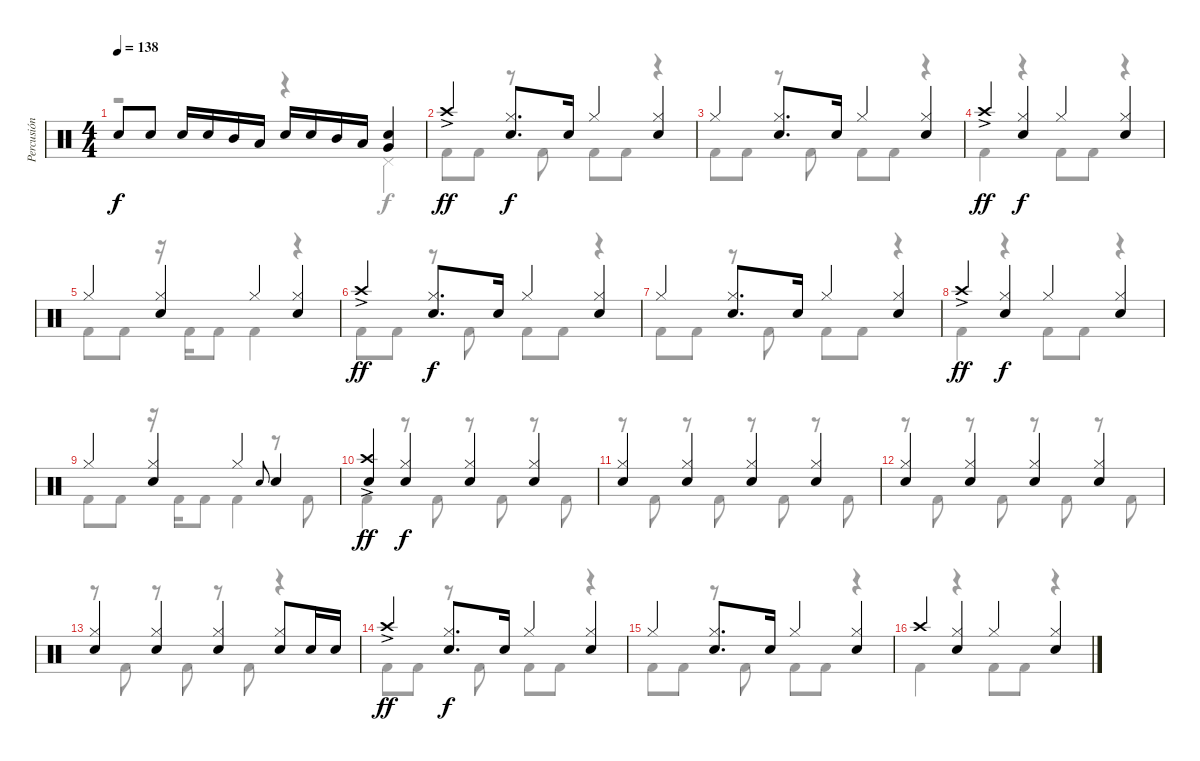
\track ("Percusión" "Percusión") {instrument percussion}
\staff {score}
\articulation defaults
\voice
\ts (4 4)
\tempo 138
\clef neutral
\ks c "Electric Snare (hit)".8{dy f} "Electric Snare (hit)".8 "Electric Snare (hit)".16 "Electric Snare (hit)".16 "Mid Tom (hit)".16 "Low Tom (hit)".16 "Electric Snare (hit)".16 "Electric Snare (hit)".16 "Mid Tom (hit)".16 "Low Tom (hit)".16
("Electric Snare (hit)" "Very Low Tom (hit)").4 |
"Crash high (hit)"{ac}.4{dy ff} ("Electric Snare (hit)" "Hi-Hat (closed)").8{d dy f} "Electric Snare (hit)".16 "Hi-Hat (closed)".4 ("Electric Snare (hit)" "Hi-Hat (closed)").4 |
"Hi-Hat (closed)".4 ("Electric Snare (hit)" "Hi-Hat (closed)").8{d} "Electric Snare (hit)".16 "Hi-Hat (closed)".4 ("Electric Snare (hit)" "Hi-Hat (closed)").4 |
"Crash high (hit)"{ac}.4{dy ff} ("Electric Snare (hit)" "Hi-Hat (closed)").4{dy f} "Hi-Hat (closed)".4 ("Electric Snare (hit)" "Hi-Hat (closed)").4 |
"Hi-Hat (closed)".4 ("Electric Snare (hit)" "Hi-Hat (closed)").4 "Hi-Hat (closed)".4 ("Electric Snare (hit)" "Hi-Hat (closed)").4 |
"Crash high (hit)"{ac}.4{dy ff} ("Electric Snare (hit)" "Hi-Hat (closed)").8{d dy f} "Electric Snare (hit)".16 "Hi-Hat (closed)".4 ("Electric Snare (hit)" "Hi-Hat (closed)").4 |
"Hi-Hat (closed)".4 ("Electric Snare (hit)" "Hi-Hat (closed)").8{d} "Electric Snare (hit)".16 "Hi-Hat (closed)".4 ("Electric Snare (hit)" "Hi-Hat (closed)").4 |
"Crash high (hit)"{ac}.4{dy ff} ("Electric Snare (hit)" "Hi-Hat (closed)").4{dy f} "Hi-Hat (closed)".4 ("Electric Snare (hit)" "Hi-Hat (closed)").4 |
"Hi-Hat (closed)".4 ("Electric Snare (hit)" "Hi-Hat (closed)").4 "Hi-Hat (closed)".4 "Electric Snare (hit)".8{gr onbeat} "Electric Snare (hit)".4 |
("Electric Snare (hit)" "Crash high (hit)"{ac}).4{dy ff} ("Electric Snare (hit)" "Hi-Hat (closed)").4{dy f} ("Electric Snare (hit)" "Hi-Hat (closed)").4 ("Electric Snare (hit)" "Hi-Hat (closed)").4 |
("Electric Snare (hit)" "Hi-Hat (closed)").4 ("Electric Snare (hit)" "Hi-Hat (closed)").4 ("Electric Snare (hit)" "Hi-Hat (closed)").4 ("Electric Snare (hit)" "Hi-Hat (closed)").4 |
("Electric Snare (hit)" "Hi-Hat (closed)").4 ("Electric Snare (hit)" "Hi-Hat (closed)").4 ("Electric Snare (hit)" "Hi-Hat (closed)").4 ("Electric Snare (hit)" "Hi-Hat (closed)").4 |
("Electric Snare (hit)" "Hi-Hat (closed)").4 ("Electric Snare (hit)" "Hi-Hat (closed)").4 ("Electric Snare (hit)" "Hi-Hat (closed)").4 ("Electric Snare (hit)" "Hi-Hat (closed)").8 "Electric Snare (hit)".16 "Electric Snare (hit)".16 |
"Crash high (hit)"{ac}.4{dy ff} ("Electric Snare (hit)" "Hi-Hat (closed)").8{d dy f} "Electric Snare (hit)".16 "Hi-Hat (closed)".4 ("Electric Snare (hit)" "Hi-Hat (closed)").4 |
"Hi-Hat (closed)".4 ("Electric Snare (hit)" "Hi-Hat (closed)").8{d} "Electric Snare (hit)".16 "Hi-Hat (closed)".4 ("Electric Snare (hit)" "Hi-Hat (closed)").4 |
"Crash high (hit)".4 ("Electric Snare (hit)" "Hi-Hat (closed)").4 "Hi-Hat (closed)".4 ("Electric Snare (hit)" "Hi-Hat (closed)").4
\voice
\clef neutral
\ottava regular
\simile none
\ks c
r.2{dy f} r.4 "Pedal Hi-Hat (hit)".4 |
"Kick (hit) 2".8 "Kick (hit) 2".8 r.8 "Kick (hit) 2".8 "Kick (hit) 2".8 "Kick (hit) 2".8 r.4 |
"Kick (hit) 2".8 "Kick (hit) 2".8 r.8 "Kick (hit) 2".8 "Kick (hit) 2".8 "Kick (hit) 2".8 r.4 |
"Kick (hit) 2".4 r.4 "Kick (hit) 2".8 "Kick (hit) 2".8 r.4 |
"Kick (hit) 2".8 "Kick (hit) 2".8 r.16 "Kick (hit) 2".16 "Kick (hit) 2".8 "Kick (hit) 2".4 r.4 |
"Kick (hit) 2".8 "Kick (hit) 2".8 r.8 "Kick (hit) 2".8 "Kick (hit) 2".8 "Kick (hit) 2".8 r.4 |
"Kick (hit) 2".8 "Kick (hit) 2".8 r.8 "Kick (hit) 2".8 "Kick (hit) 2".8 "Kick (hit) 2".8 r.4 |
"Kick (hit) 2".4 r.4 "Kick (hit) 2".8 "Kick (hit) 2".8 r.4 |
"Kick (hit) 2".8 "Kick (hit) 2".8 r.16 "Kick (hit) 2".16 "Kick (hit) 2".8 "Kick (hit) 2".4 r.8 "Kick (hit) 2".8 |
"Kick (hit) 2".4 r.8 "Kick (hit) 2".8 r.8 "Kick (hit) 2".8 r.8 "Kick (hit) 2".8 |
r.8 "Kick (hit) 2".8 r.8 "Kick (hit) 2".8 r.8 "Kick (hit) 2".8 r.8 "Kick (hit) 2".8 |
r.8 "Kick (hit) 2".8 r.8 "Kick (hit) 2".8 r.8 "Kick (hit) 2".8 r.8 "Kick (hit) 2".8 |
r.8 "Kick (hit) 2".8 r.8 "Kick (hit) 2".8 r.8 "Kick (hit) 2".8 r.4 |
"Kick (hit) 2".8 "Kick (hit) 2".8 r.8 "Kick (hit) 2".8 "Kick (hit) 2".8 "Kick (hit) 2".8 r.4 |
"Kick (hit) 2".8 "Kick (hit) 2".8 r.8 "Kick (hit) 2".8 "Kick (hit) 2".8 "Kick (hit) 2".8 r.4 |
"Kick (hit) 2".4 r.4 "Kick (hit) 2".8 "Kick (hit) 2".8 r.4
